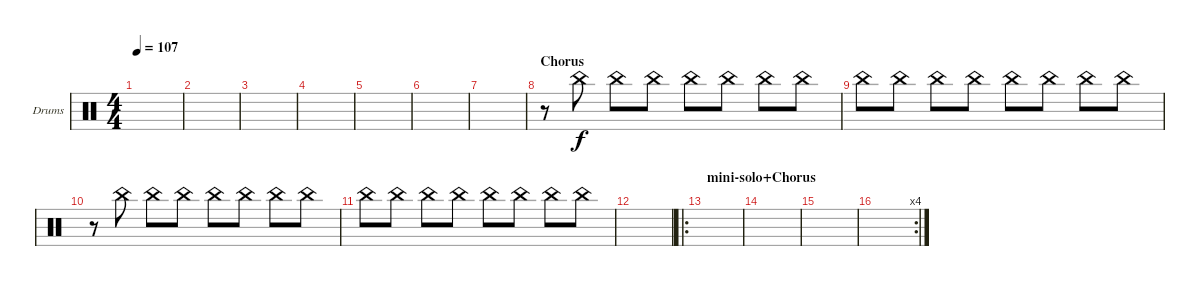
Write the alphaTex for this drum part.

\bracketExtendMode groupsimilarinstruments
\firstSystemTrackNameOrientation horizontal
\otherSystemsTrackNameOrientation horizontal
\track ("Splash" "Drums") {instrument percussion}
\staff {score}
\articulation defaults
\ts (4 4)
\tempo 107
\clef neutral
\ks c
|
|
|
|
|
|
|
\section ("" "Chorus")
r.8 "China (hit)".8 "China (hit)".8 "China (hit)".8 "China (hit)".8 "China (hit)".8 "China (hit)".8 "China (hit)".8 |
"China (hit)".8 "China (hit)".8 "China (hit)".8 "China (hit)".8 "China (hit)".8 "China (hit)".8 "China (hit)".8 "China (hit)".8 |
r.8 "China (hit)".8 "China (hit)".8 "China (hit)".8 "China (hit)".8 "China (hit)".8 "China (hit)".8 "China (hit)".8 |
"China (hit)".8 "China (hit)".8 "China (hit)".8 "China (hit)".8 "China (hit)".8 "China (hit)".8 "China (hit)".8 "China (hit)".8 |
|
\ro
\section ("" "mini-solo+Chorus")
|
|
|
\rc 4
